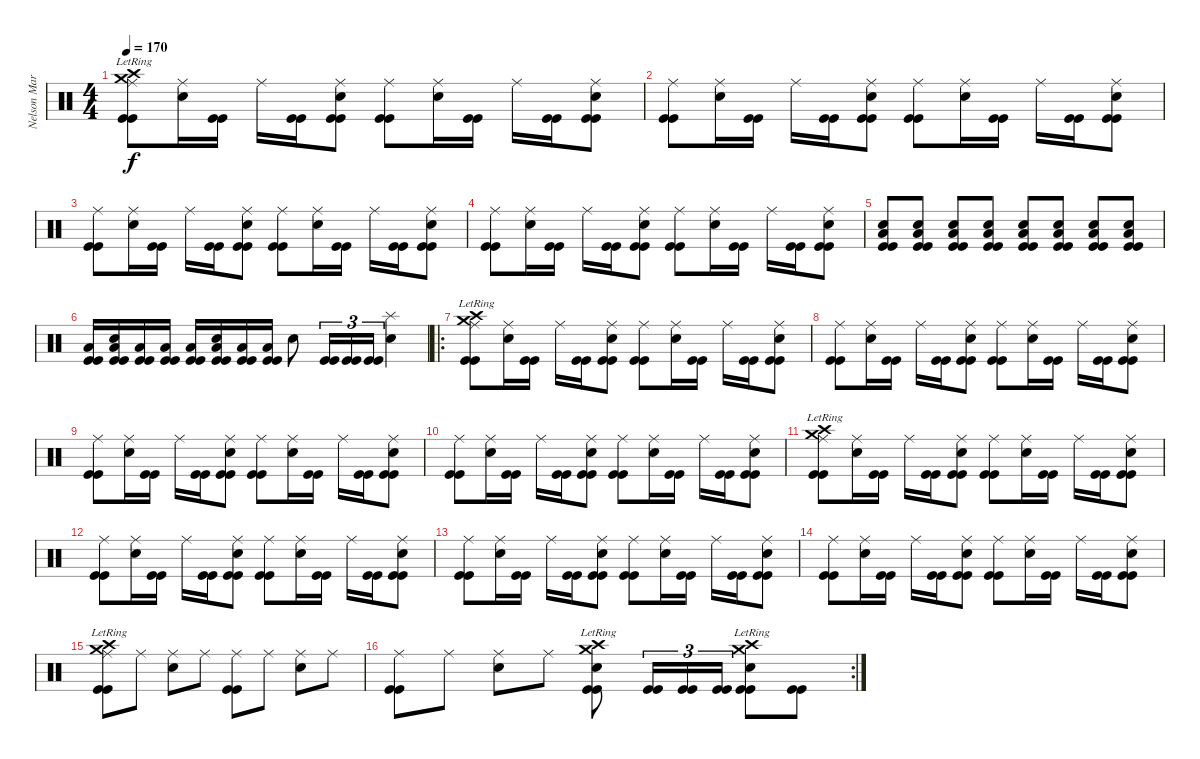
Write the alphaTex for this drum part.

\track ("Nelson Maria" "Nelson Mar") {instrument percussion}
\staff {score}
\articulation defaults
\ts (4 4)
\tempo 170
\clef neutral
\ks c
("Crash high (hit)"{lr} "Crash medium (hit)"{lr} "Ride (middle)" "Kick (hit)" "Kick (hit)").8{dy f} ("Snare (hit) 2" "Ride (middle)").16 ("Kick (hit)" "Kick (hit)").16 "Ride (middle)".16 ("Kick (hit)" "Kick (hit)").16 ("Snare (hit) 2" "Ride (middle)" "Kick (hit)" "Kick (hit)").8 ("Ride (middle)" "Kick (hit)" "Kick (hit)").8 ("Snare (hit) 2" "Ride (middle)").16 ("Kick (hit)" "Kick (hit)").16 "Ride (middle)".16 ("Kick (hit)" "Kick (hit)").16 ("Snare (hit) 2" "Ride (middle)" "Kick (hit)" "Kick (hit)").8 |
("Ride (middle)" "Kick (hit)" "Kick (hit)").8 ("Snare (hit) 2" "Ride (middle)").16 ("Kick (hit)" "Kick (hit)").16 "Ride (middle)".16 ("Kick (hit)" "Kick (hit)").16 ("Snare (hit) 2" "Ride (middle)" "Kick (hit)" "Kick (hit)").8 ("Ride (middle)" "Kick (hit)" "Kick (hit)").8 ("Snare (hit) 2" "Ride (middle)").16 ("Kick (hit)" "Kick (hit)").16 "Ride (middle)".16 ("Kick (hit)" "Kick (hit)").16 ("Snare (hit) 2" "Ride (middle)" "Kick (hit)" "Kick (hit)").8 |
("Ride (middle)" "Kick (hit)" "Kick (hit)").8 ("Snare (hit) 2" "Ride (middle)").16 ("Kick (hit)" "Kick (hit)").16 "Ride (middle)".16 ("Kick (hit)" "Kick (hit)").16 ("Snare (hit) 2" "Ride (middle)" "Kick (hit)" "Kick (hit)").8 ("Ride (middle)" "Kick (hit)" "Kick (hit)").8 ("Snare (hit) 2" "Ride (middle)").16 ("Kick (hit)" "Kick (hit)").16 "Ride (middle)".16 ("Kick (hit)" "Kick (hit)").16 ("Snare (hit) 2" "Ride (middle)" "Kick (hit)" "Kick (hit)").8 |
("Ride (middle)" "Kick (hit)" "Kick (hit)").8 ("Snare (hit) 2" "Ride (middle)").16 ("Kick (hit)" "Kick (hit)").16 "Ride (middle)".16 ("Kick (hit)" "Kick (hit)").16 ("Snare (hit) 2" "Ride (middle)" "Kick (hit)" "Kick (hit)").8 ("Ride (middle)" "Kick (hit)" "Kick (hit)").8 ("Snare (hit) 2" "Ride (middle)").16 ("Kick (hit)" "Kick (hit)").16 "Ride (middle)".16 ("Kick (hit)" "Kick (hit)").16 ("Snare (hit) 2" "Ride (middle)" "Kick (hit)" "Kick (hit)").8 |
("Snare (hit) 2" "Low Tom (hit)" "Kick (hit)" "Kick (hit)").8 ("Snare (hit) 2" "Low Tom (hit)" "Kick (hit)" "Kick (hit)").8 ("Snare (hit) 2" "Low Tom (hit)" "Kick (hit)" "Kick (hit)").8 ("Snare (hit) 2" "Low Tom (hit)" "Kick (hit)" "Kick (hit)").8 ("Snare (hit) 2" "Low Tom (hit)" "Kick (hit)" "Kick (hit)").8 ("Snare (hit) 2" "Low Tom (hit)" "Kick (hit)" "Kick (hit)").8 ("Snare (hit) 2" "Low Tom (hit)" "Kick (hit)" "Kick (hit)").8 ("Snare (hit) 2" "Low Tom (hit)" "Kick (hit)" "Kick (hit)").8 |
("Low Tom (hit)" "Kick (hit)" "Kick (hit)").16 ("Snare (hit) 2" "Low Tom (hit)" "Kick (hit)" "Kick (hit)").16 ("Low Tom (hit)" "Kick (hit)" "Kick (hit)").16 ("Low Tom (hit)" "Kick (hit)" "Kick (hit)").16 ("Low Tom (hit)" "Kick (hit)" "Kick (hit)").16 ("Snare (hit) 2" "Low Tom (hit)" "Kick (hit)" "Kick (hit)").16 ("Low Tom (hit)" "Kick (hit)" "Kick (hit)").16 ("Low Tom (hit)" "Kick (hit)" "Kick (hit)").16 "Snare (hit) 2".8 ("Kick (hit)" "Kick (hit)").16{tu (3 2)} ("Kick (hit)" "Kick (hit)").16{tu (3 2)} ("Kick (hit)" "Kick (hit)").16{tu (3 2)} ("Snare (hit) 2" "Splash (hit)").4 |
\ro
("Crash high (hit)"{lr} "Crash medium (hit)"{lr} "Ride (middle)" "Kick (hit)" "Kick (hit)").8 ("Snare (hit) 2" "Ride (middle)").16 ("Kick (hit)" "Kick (hit)").16 "Ride (middle)".16 ("Kick (hit)" "Kick (hit)").16 ("Snare (hit) 2" "Ride (middle)" "Kick (hit)" "Kick (hit)").8 ("Ride (middle)" "Kick (hit)" "Kick (hit)").8 ("Snare (hit) 2" "Ride (middle)").16 ("Kick (hit)" "Kick (hit)").16 "Ride (middle)".16 ("Kick (hit)" "Kick (hit)").16 ("Snare (hit) 2" "Ride (middle)" "Kick (hit)" "Kick (hit)").8 |
("Ride (middle)" "Kick (hit)" "Kick (hit)").8 ("Snare (hit) 2" "Ride (middle)").16 ("Kick (hit)" "Kick (hit)").16 "Ride (middle)".16 ("Kick (hit)" "Kick (hit)").16 ("Snare (hit) 2" "Ride (middle)" "Kick (hit)" "Kick (hit)").8 ("Ride (middle)" "Kick (hit)" "Kick (hit)").8 ("Snare (hit) 2" "Ride (middle)").16 ("Kick (hit)" "Kick (hit)").16 "Ride (middle)".16 ("Kick (hit)" "Kick (hit)").16 ("Snare (hit) 2" "Ride (middle)" "Kick (hit)" "Kick (hit)").8 |
("Ride (middle)" "Kick (hit)" "Kick (hit)").8 ("Snare (hit) 2" "Ride (middle)").16 ("Kick (hit)" "Kick (hit)").16 "Ride (middle)".16 ("Kick (hit)" "Kick (hit)").16 ("Snare (hit) 2" "Ride (middle)" "Kick (hit)" "Kick (hit)").8 ("Ride (middle)" "Kick (hit)" "Kick (hit)").8 ("Snare (hit) 2" "Ride (middle)").16 ("Kick (hit)" "Kick (hit)").16 "Ride (middle)".16 ("Kick (hit)" "Kick (hit)").16 ("Snare (hit) 2" "Ride (middle)" "Kick (hit)" "Kick (hit)").8 |
("Ride (middle)" "Kick (hit)" "Kick (hit)").8 ("Snare (hit) 2" "Ride (middle)").16 ("Kick (hit)" "Kick (hit)").16 "Ride (middle)".16 ("Kick (hit)" "Kick (hit)").16 ("Snare (hit) 2" "Ride (middle)" "Kick (hit)" "Kick (hit)").8 ("Ride (middle)" "Kick (hit)" "Kick (hit)").8 ("Snare (hit) 2" "Ride (middle)").16 ("Kick (hit)" "Kick (hit)").16 "Ride (middle)".16 ("Kick (hit)" "Kick (hit)").16 ("Snare (hit) 2" "Ride (middle)" "Kick (hit)" "Kick (hit)").8 |
("Crash high (hit)"{lr} "Crash medium (hit)"{lr} "Ride (middle)" "Kick (hit)" "Kick (hit)").8 ("Snare (hit) 2" "Ride (middle)").16 ("Kick (hit)" "Kick (hit)").16 "Ride (middle)".16 ("Kick (hit)" "Kick (hit)").16 ("Snare (hit) 2" "Ride (middle)" "Kick (hit)" "Kick (hit)").8 ("Ride (middle)" "Kick (hit)" "Kick (hit)").8 ("Snare (hit) 2" "Ride (middle)").16 ("Kick (hit)" "Kick (hit)").16 "Ride (middle)".16 ("Kick (hit)" "Kick (hit)").16 ("Snare (hit) 2" "Ride (middle)" "Kick (hit)" "Kick (hit)").8 |
("Ride (middle)" "Kick (hit)" "Kick (hit)").8 ("Snare (hit) 2" "Ride (middle)").16 ("Kick (hit)" "Kick (hit)").16 "Ride (middle)".16 ("Kick (hit)" "Kick (hit)").16 ("Snare (hit) 2" "Ride (middle)" "Kick (hit)" "Kick (hit)").8 ("Ride (middle)" "Kick (hit)" "Kick (hit)").8 ("Snare (hit) 2" "Ride (middle)").16 ("Kick (hit)" "Kick (hit)").16 "Ride (middle)".16 ("Kick (hit)" "Kick (hit)").16 ("Snare (hit) 2" "Ride (middle)" "Kick (hit)" "Kick (hit)").8 |
("Ride (middle)" "Kick (hit)" "Kick (hit)").8 ("Snare (hit) 2" "Ride (middle)").16 ("Kick (hit)" "Kick (hit)").16 "Ride (middle)".16 ("Kick (hit)" "Kick (hit)").16 ("Snare (hit) 2" "Ride (middle)" "Kick (hit)" "Kick (hit)").8 ("Ride (middle)" "Kick (hit)" "Kick (hit)").8 ("Snare (hit) 2" "Ride (middle)").16 ("Kick (hit)" "Kick (hit)").16 "Ride (middle)".16 ("Kick (hit)" "Kick (hit)").16 ("Snare (hit) 2" "Ride (middle)" "Kick (hit)" "Kick (hit)").8 |
("Ride (middle)" "Kick (hit)" "Kick (hit)").8 ("Snare (hit) 2" "Ride (middle)").16 ("Kick (hit)" "Kick (hit)").16 "Ride (middle)".16 ("Kick (hit)" "Kick (hit)").16 ("Snare (hit) 2" "Ride (middle)" "Kick (hit)" "Kick (hit)").8 ("Ride (middle)" "Kick (hit)" "Kick (hit)").8 ("Snare (hit) 2" "Ride (middle)").16 ("Kick (hit)" "Kick (hit)").16 "Ride (middle)".16 ("Kick (hit)" "Kick (hit)").16 ("Snare (hit) 2" "Ride (middle)" "Kick (hit)" "Kick (hit)").8 |
("Crash high (hit)"{lr} "Crash medium (hit)"{lr} "Ride (middle)" "Kick (hit)" "Kick (hit)").8 "Ride (middle)".8 ("Snare (hit) 2" "Ride (middle)").8 "Ride (middle)".8 ("Ride (middle)" "Kick (hit)" "Kick (hit)").8 "Ride (middle)".8 ("Snare (hit) 2" "Ride (middle)").8 "Ride (middle)".8 |
\rc 2
("Ride (middle)" "Kick (hit)" "Kick (hit)").8 "Ride (middle)".8 ("Snare (hit) 2" "Ride (middle)").8 "Ride (middle)".8 ("Crash high (hit)"{lr} "Crash medium (hit)"{lr} "Snare (hit) 2" "Kick (hit)" "Kick (hit)").8 ("Kick (hit)" "Kick (hit)").16{tu (3 2)} ("Kick (hit)" "Kick (hit)").16{tu (3 2)} ("Kick (hit)" "Kick (hit)").16{tu (3 2)} ("Crash high (hit)"{lr} "Crash medium (hit)"{lr} "Snare (hit) 2" "Kick (hit)" "Kick (hit)").8 ("Kick (hit)" "Kick (hit)").8
